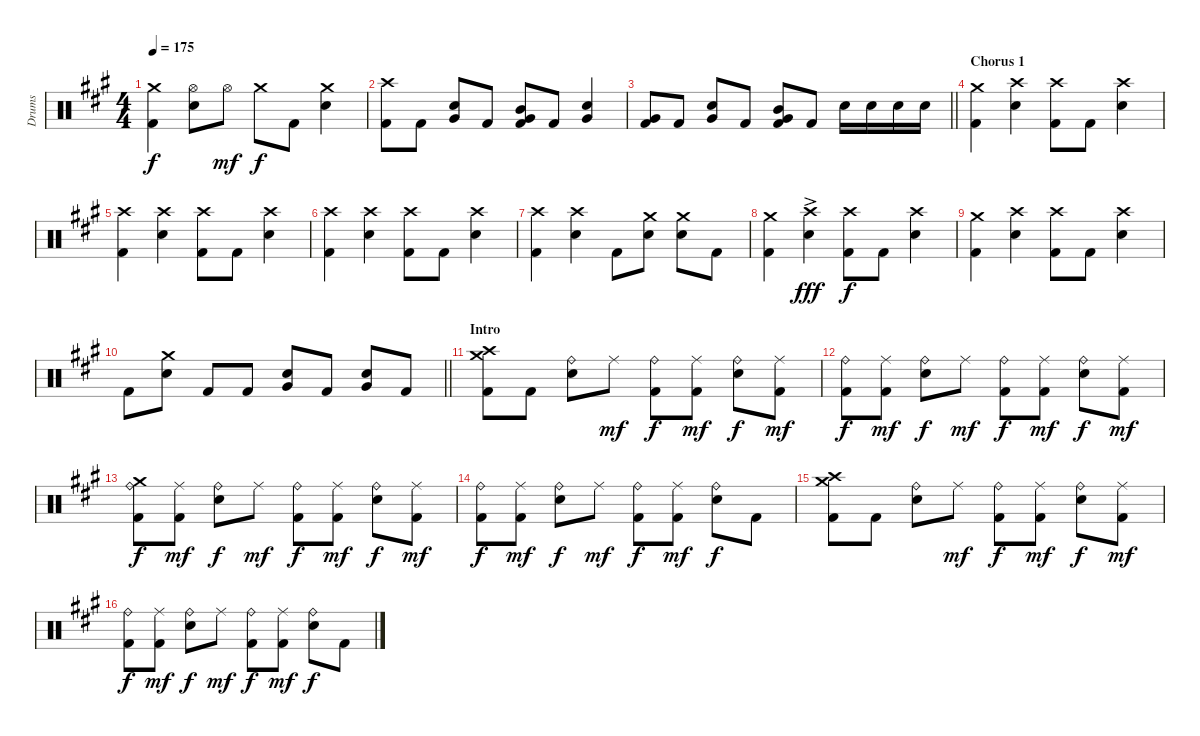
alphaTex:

\track ("Drums" "Drums") {instrument percussion}
\staff {score}
\articulation defaults
\ts (4 4)
\tempo 175
\clef neutral
\ks f#minor
("Crash medium (hit)" "Kick (hit) 2").4{dy f} ("Hi-Hat (open)" "Electric Snare (hit)").8 "Hi-Hat (open)".8{dy mf} "Crash medium (hit)".8{dy f} "Kick (hit) 2".8 ("Crash medium (hit)" "Electric Snare (hit)").4 |
("Crash high (hit)" "Kick (hit) 2").8 "Kick (hit) 2".8 ("Electric Snare (hit)" "Very Low Tom (hit)").8 "Kick (hit) 2".8 ("Mid Tom (hit)" "Very Low Tom (hit)" "Kick (hit) 2").8 "Kick (hit) 2".8 ("Electric Snare (hit)" "Very Low Tom (hit)").4 |
\barLineRight lightlight
("Very Low Tom (hit)" "Kick (hit) 2").8 "Kick (hit) 2".8 ("Electric Snare (hit)" "Very Low Tom (hit)").8 "Kick (hit) 2".8 ("Mid Tom (hit)" "Very Low Tom (hit)" "Kick (hit) 2").8 "Kick (hit) 2".8 "Electric Snare (hit)".16 "Electric Snare (hit)".16 "Electric Snare (hit)".16 "Electric Snare (hit)".16 |
\section ("" "Chorus 1")
("Crash medium (hit)" "Kick (hit) 2").4 ("Crash high (hit)" "Electric Snare (hit)").4 ("Crash high (hit)" "Kick (hit) 2").8 "Kick (hit) 2".8 ("Crash high (hit)" "Electric Snare (hit)").4 |
("Crash high (hit)" "Kick (hit) 2").4 ("Crash high (hit)" "Electric Snare (hit)").4 ("Crash high (hit)" "Kick (hit) 2").8 "Kick (hit) 2".8 ("Crash high (hit)" "Electric Snare (hit)").4 |
("Crash high (hit)" "Kick (hit) 2").4 ("Crash high (hit)" "Electric Snare (hit)").4 ("Crash high (hit)" "Kick (hit) 2").8 "Kick (hit) 2".8 ("Crash high (hit)" "Electric Snare (hit)").4 |
("Crash high (hit)" "Kick (hit) 2").4 ("Crash high (hit)" "Electric Snare (hit)").4 "Kick (hit) 2".8 ("Crash medium (hit)" "Electric Snare (hit)").8 ("Crash medium (hit)" "Electric Snare (hit)").8 "Kick (hit) 2".8 |
("Crash medium (hit)" "Kick (hit) 2").4 ("Crash high (hit)"{ac} "Electric Snare (hit)").4{dy fff} ("Crash high (hit)" "Kick (hit) 2").8{dy f} "Kick (hit) 2".8 ("Crash high (hit)" "Electric Snare (hit)").4 |
("Crash medium (hit)" "Kick (hit) 2").4 ("Crash high (hit)" "Electric Snare (hit)").4 ("Crash high (hit)" "Kick (hit) 2").8 "Kick (hit) 2".8 ("Crash high (hit)" "Electric Snare (hit)").4 |
\barLineRight lightlight "Kick (hit) 2".8
("Crash medium (hit)" "Electric Snare (hit)").8 "Kick (hit) 2".8 "Kick (hit) 2".8 ("Electric Snare (hit)" "Very Low Tom (hit)").8 "Kick (hit) 2".8 ("Electric Snare (hit)" "Very Low Tom (hit)").8 "Kick (hit) 2".8 |
\section ("" "Intro")
("Crash high (hit)" "Crash medium (hit)" "Kick (hit) 2").8 "Kick (hit) 2".8 ("Ride (bell)" "Electric Snare (hit)").8 "Ride (middle)".8{dy mf} ("Ride (bell)" "Kick (hit) 2").8{dy f} ("Ride (middle)" "Kick (hit) 2").8{dy mf} ("Ride (bell)" "Electric Snare (hit)").8{dy f} ("Ride (middle)" "Kick (hit) 2").8{dy mf} |
("Ride (bell)" "Kick (hit) 2").8{dy f} ("Ride (middle)" "Kick (hit) 2").8{dy mf} ("Ride (bell)" "Electric Snare (hit)").8{dy f} "Ride (middle)".8{dy mf} ("Ride (bell)" "Kick (hit) 2").8{dy f} ("Ride (middle)" "Kick (hit) 2").8{dy mf} ("Ride (bell)" "Electric Snare (hit)").8{dy f} ("Ride (middle)" "Kick (hit) 2").8{dy mf} |
("Crash medium (hit)" "Ride (bell)" "Kick (hit) 2").8{dy f} ("Ride (middle)" "Kick (hit) 2").8{dy mf} ("Ride (bell)" "Electric Snare (hit)").8{dy f} "Ride (middle)".8{dy mf} ("Ride (bell)" "Kick (hit) 2").8{dy f} ("Ride (middle)" "Kick (hit) 2").8{dy mf} ("Ride (bell)" "Electric Snare (hit)").8{dy f} ("Ride (middle)" "Kick (hit) 2").8{dy mf} |
("Ride (bell)" "Kick (hit) 2").8{dy f} ("Ride (middle)" "Kick (hit) 2").8{dy mf} ("Ride (bell)" "Electric Snare (hit)").8{dy f} "Ride (middle)".8{dy mf} ("Ride (bell)" "Kick (hit) 2").8{dy f} ("Ride (middle)" "Kick (hit) 2").8{dy mf} ("Ride (bell)" "Electric Snare (hit)").8{dy f} "Kick (hit) 2".8 |
("Crash high (hit)" "Crash medium (hit)" "Kick (hit) 2").8 "Kick (hit) 2".8 ("Ride (bell)" "Electric Snare (hit)").8 "Ride (middle)".8{dy mf} ("Ride (bell)" "Kick (hit) 2").8{dy f} ("Ride (middle)" "Kick (hit) 2").8{dy mf} ("Ride (bell)" "Electric Snare (hit)").8{dy f} ("Ride (middle)" "Kick (hit) 2").8{dy mf} |
("Ride (bell)" "Kick (hit) 2").8{dy f} ("Ride (middle)" "Kick (hit) 2").8{dy mf} ("Ride (bell)" "Electric Snare (hit)").8{dy f} "Ride (middle)".8{dy mf} ("Ride (bell)" "Kick (hit) 2").8{dy f} ("Ride (middle)" "Kick (hit) 2").8{dy mf} ("Ride (bell)" "Electric Snare (hit)").8{dy f} "Kick (hit) 2".8
